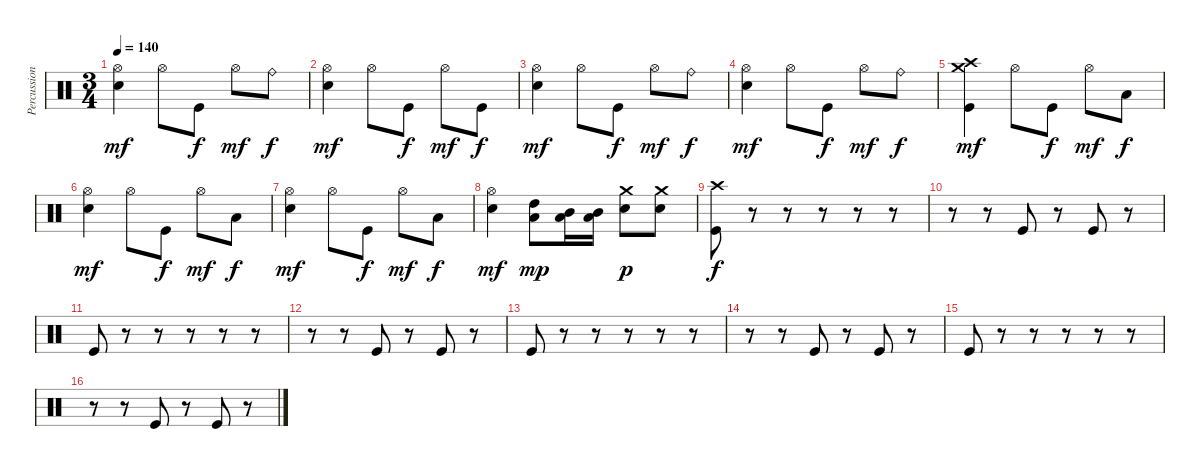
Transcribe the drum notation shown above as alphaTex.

\track ("Percussion" "Percussion") {instrument percussion}
\staff {score}
\articulation defaults
\ts (3 4)
\tempo 140
\clef neutral
\ks c
("Electric Snare (hit)" "Hi-Hat (open)").4{dy mf} "Hi-Hat (open)".8 "Kick (hit)".8{dy f} "Hi-Hat (open)".8{dy mf} "Ride (bell)".8{dy f} |
("Electric Snare (hit)" "Hi-Hat (open)").4{dy mf} "Hi-Hat (open)".8 "Kick (hit)".8{dy f} "Hi-Hat (open)".8{dy mf} "Kick (hit)".8{dy f} |
("Electric Snare (hit)" "Hi-Hat (open)").4{dy mf} "Hi-Hat (open)".8 "Kick (hit)".8{dy f} "Hi-Hat (open)".8{dy mf} "Ride (bell)".8{dy f} |
("Electric Snare (hit)" "Hi-Hat (open)").4{dy mf} "Hi-Hat (open)".8 "Kick (hit)".8{dy f} "Hi-Hat (open)".8{dy mf} "Ride (bell)".8{dy f} |
("Kick (hit)" "Crash high (hit)" "Crash medium (hit)").4{dy mf} "Hi-Hat (open)".8 "Kick (hit)".8{dy f} "Hi-Hat (open)".8{dy mf} "Low Floor Tom (hit)".8{dy f} |
("Electric Snare (hit)" "Hi-Hat (open)").4{dy mf} "Hi-Hat (open)".8 "Kick (hit)".8{dy f} "Hi-Hat (open)".8{dy mf} "Low Floor Tom (hit)".8{dy f} |
("Electric Snare (hit)" "Hi-Hat (open)").4{dy mf} "Hi-Hat (open)".8 "Kick (hit)".8{dy f} "Hi-Hat (open)".8{dy mf} "Low Floor Tom (hit)".8{dy f} |
("Electric Snare (hit)" "Hi-Hat (open)").4{dy mf} ("Low Tom (hit)" "High Tom (hit)").8{dy mp} ("Low Tom (hit)" "Mid Tom (hit)").16 ("Low Tom (hit)" "Mid Tom (hit)").16 ("Electric Snare (hit)" "Crash medium (hit)").8{dy p} ("Electric Snare (hit)" "Crash medium (hit)").8 |
("Crash high (hit)" "Kick (hit)").8{dy f} r.8 r.8 r.8 r.8 r.8 |
r.8 r.8 "Kick (hit)".8 r.8 "Kick (hit)".8 r.8 |
"Kick (hit)".8 r.8 r.8 r.8 r.8 r.8 |
r.8 r.8 "Kick (hit)".8 r.8 "Kick (hit)".8 r.8 |
"Kick (hit)".8 r.8 r.8 r.8 r.8 r.8 |
r.8 r.8 "Kick (hit)".8 r.8 "Kick (hit)".8 r.8 |
"Kick (hit)".8 r.8 r.8 r.8 r.8 r.8 |
r.8 r.8 "Kick (hit)".8 r.8 "Kick (hit)".8 r.8
